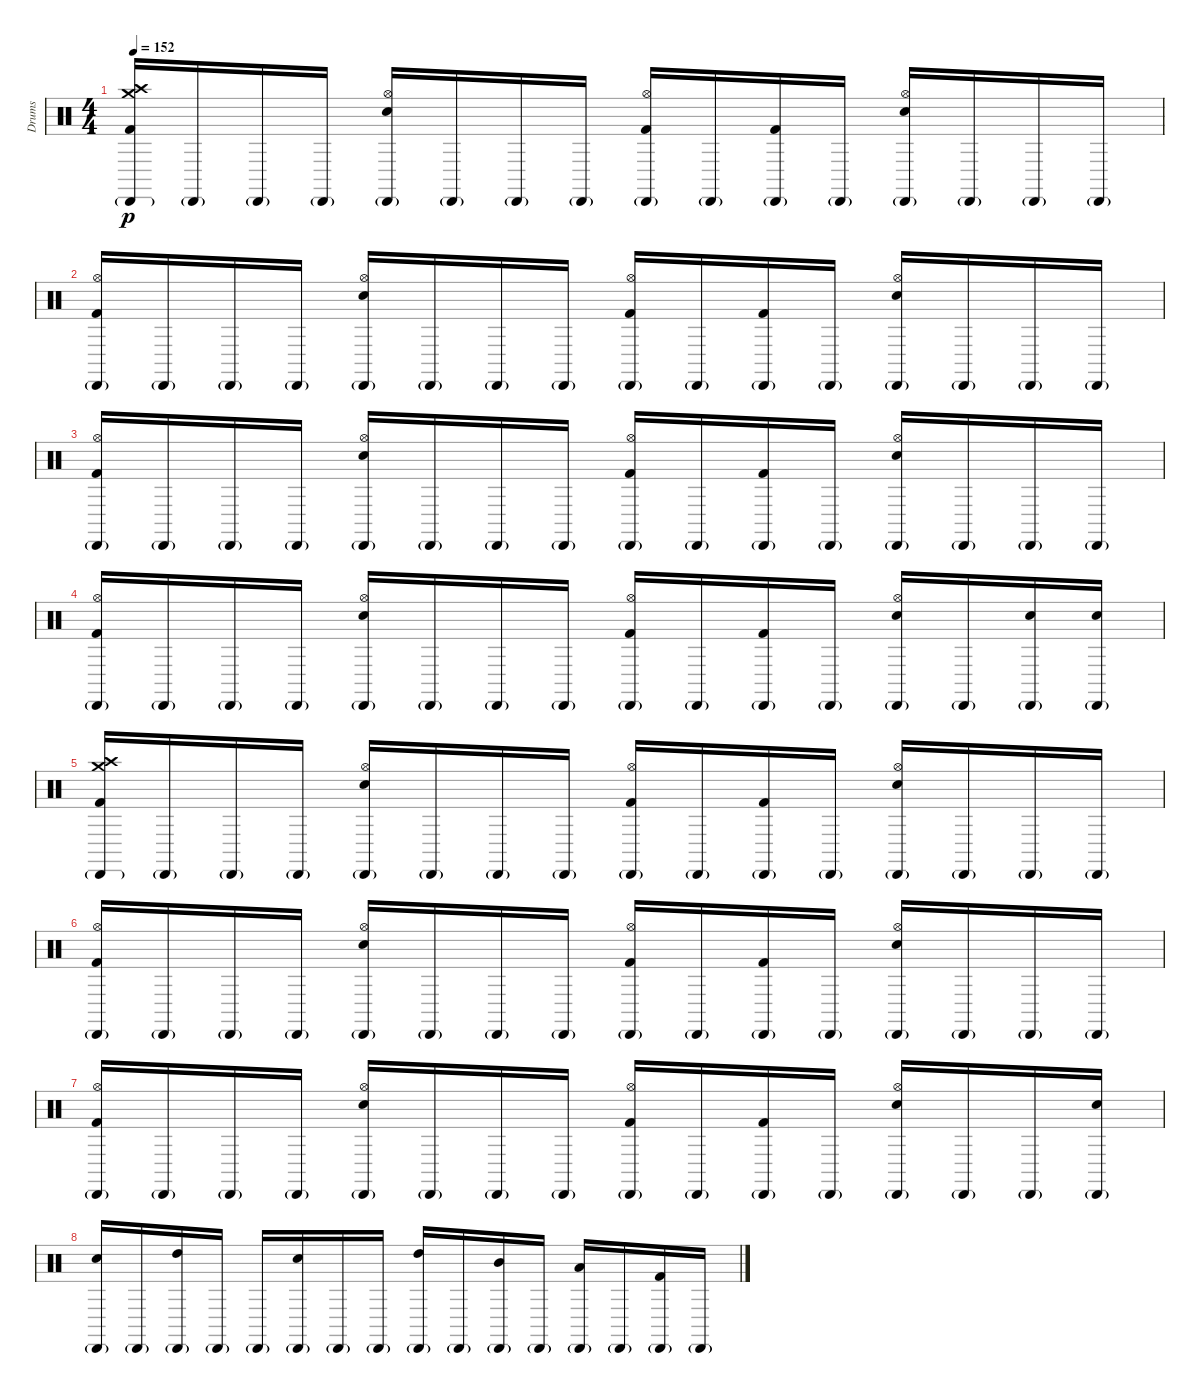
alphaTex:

\track ("Drums" "Drums") {instrument percussion}
\staff {score}
\articulation defaults
\ts (4 4)
\tempo 152
\clef neutral
\ks c
("Crash high (hit)" "Crash medium (hit)" "Cabasa (hit)"{g} "Kick (hit) 2").16{dy p} "Cabasa (hit)"{g}.16 "Cabasa (hit)"{g}.16 "Cabasa (hit)"{g}.16 ("Hi-Hat (open)" "Cabasa (hit)"{g} "Electric Snare (hit)").16 "Cabasa (hit)"{g}.16 "Cabasa (hit)"{g}.16 "Cabasa (hit)"{g}.16 ("Hi-Hat (open)" "Cabasa (hit)"{g} "Kick (hit) 2").16 "Cabasa (hit)"{g}.16 ("Cabasa (hit)"{g} "Kick (hit) 2").16 "Cabasa (hit)"{g}.16 ("Hi-Hat (open)" "Cabasa (hit)"{g} "Electric Snare (hit)").16 "Cabasa (hit)"{g}.16 "Cabasa (hit)"{g}.16 "Cabasa (hit)"{g}.16 |
("Hi-Hat (open)" "Cabasa (hit)"{g} "Kick (hit) 2").16 "Cabasa (hit)"{g}.16 "Cabasa (hit)"{g}.16 "Cabasa (hit)"{g}.16 ("Hi-Hat (open)" "Cabasa (hit)"{g} "Electric Snare (hit)").16 "Cabasa (hit)"{g}.16 "Cabasa (hit)"{g}.16 "Cabasa (hit)"{g}.16 ("Hi-Hat (open)" "Cabasa (hit)"{g} "Kick (hit) 2").16 "Cabasa (hit)"{g}.16 ("Cabasa (hit)"{g} "Kick (hit) 2").16 "Cabasa (hit)"{g}.16 ("Hi-Hat (open)" "Cabasa (hit)"{g} "Electric Snare (hit)").16 "Cabasa (hit)"{g}.16 "Cabasa (hit)"{g}.16 "Cabasa (hit)"{g}.16 |
("Hi-Hat (open)" "Cabasa (hit)"{g} "Kick (hit) 2").16 "Cabasa (hit)"{g}.16 "Cabasa (hit)"{g}.16 "Cabasa (hit)"{g}.16 ("Hi-Hat (open)" "Cabasa (hit)"{g} "Electric Snare (hit)").16 "Cabasa (hit)"{g}.16 "Cabasa (hit)"{g}.16 "Cabasa (hit)"{g}.16 ("Hi-Hat (open)" "Cabasa (hit)"{g} "Kick (hit) 2").16 "Cabasa (hit)"{g}.16 ("Cabasa (hit)"{g} "Kick (hit) 2").16 "Cabasa (hit)"{g}.16 ("Hi-Hat (open)" "Cabasa (hit)"{g} "Electric Snare (hit)").16 "Cabasa (hit)"{g}.16 "Cabasa (hit)"{g}.16 "Cabasa (hit)"{g}.16 |
("Hi-Hat (open)" "Cabasa (hit)"{g} "Kick (hit) 2").16 "Cabasa (hit)"{g}.16 "Cabasa (hit)"{g}.16 "Cabasa (hit)"{g}.16 ("Hi-Hat (open)" "Cabasa (hit)"{g} "Electric Snare (hit)").16 "Cabasa (hit)"{g}.16 "Cabasa (hit)"{g}.16 "Cabasa (hit)"{g}.16 ("Hi-Hat (open)" "Cabasa (hit)"{g} "Kick (hit) 2").16 "Cabasa (hit)"{g}.16 ("Cabasa (hit)"{g} "Kick (hit) 2").16 "Cabasa (hit)"{g}.16 ("Hi-Hat (open)" "Cabasa (hit)"{g} "Electric Snare (hit)").16 "Cabasa (hit)"{g}.16 ("Cabasa (hit)"{g} "Electric Snare (hit)").16 ("Cabasa (hit)"{g} "Electric Snare (hit)").16 |
("Crash high (hit)" "Crash medium (hit)" "Cabasa (hit)"{g} "Kick (hit) 2").16 "Cabasa (hit)"{g}.16 "Cabasa (hit)"{g}.16 "Cabasa (hit)"{g}.16 ("Hi-Hat (open)" "Cabasa (hit)"{g} "Electric Snare (hit)").16 "Cabasa (hit)"{g}.16 "Cabasa (hit)"{g}.16 "Cabasa (hit)"{g}.16 ("Hi-Hat (open)" "Cabasa (hit)"{g} "Kick (hit) 2").16 "Cabasa (hit)"{g}.16 ("Cabasa (hit)"{g} "Kick (hit) 2").16 "Cabasa (hit)"{g}.16 ("Hi-Hat (open)" "Cabasa (hit)"{g} "Electric Snare (hit)").16 "Cabasa (hit)"{g}.16 "Cabasa (hit)"{g}.16 "Cabasa (hit)"{g}.16 |
("Hi-Hat (open)" "Cabasa (hit)"{g} "Kick (hit) 2").16 "Cabasa (hit)"{g}.16 "Cabasa (hit)"{g}.16 "Cabasa (hit)"{g}.16 ("Hi-Hat (open)" "Cabasa (hit)"{g} "Electric Snare (hit)").16 "Cabasa (hit)"{g}.16 "Cabasa (hit)"{g}.16 "Cabasa (hit)"{g}.16 ("Hi-Hat (open)" "Cabasa (hit)"{g} "Kick (hit) 2").16 "Cabasa (hit)"{g}.16 ("Cabasa (hit)"{g} "Kick (hit) 2").16 "Cabasa (hit)"{g}.16 ("Hi-Hat (open)" "Cabasa (hit)"{g} "Electric Snare (hit)").16 "Cabasa (hit)"{g}.16 "Cabasa (hit)"{g}.16 "Cabasa (hit)"{g}.16 |
("Hi-Hat (open)" "Cabasa (hit)"{g} "Kick (hit) 2").16 "Cabasa (hit)"{g}.16 "Cabasa (hit)"{g}.16 "Cabasa (hit)"{g}.16 ("Hi-Hat (open)" "Cabasa (hit)"{g} "Electric Snare (hit)").16 "Cabasa (hit)"{g}.16 "Cabasa (hit)"{g}.16 "Cabasa (hit)"{g}.16 ("Hi-Hat (open)" "Cabasa (hit)"{g} "Kick (hit) 2").16 "Cabasa (hit)"{g}.16 ("Cabasa (hit)"{g} "Kick (hit) 2").16 "Cabasa (hit)"{g}.16 ("Hi-Hat (open)" "Cabasa (hit)"{g} "Electric Snare (hit)").16 "Cabasa (hit)"{g}.16 "Cabasa (hit)"{g}.16 ("Cabasa (hit)"{g} "Electric Snare (hit)").16 |
("Cabasa (hit)"{g} "Electric Snare (hit)").16 "Cabasa (hit)"{g}.16 ("Cabasa (hit)"{g} "High Tom (hit)").16 "Cabasa (hit)"{g}.16 "Cabasa (hit)"{g}.16 ("Cabasa (hit)"{g} "Electric Snare (hit)").16 "Cabasa (hit)"{g}.16 "Cabasa (hit)"{g}.16 ("Cabasa (hit)"{g} "High Tom (hit)").16 "Cabasa (hit)"{g}.16 ("Cabasa (hit)"{g} "Mid Tom (hit)").16 "Cabasa (hit)"{g}.16 ("Cabasa (hit)"{g} "Low Tom (hit)").16 "Cabasa (hit)"{g}.16 ("Cabasa (hit)"{g} "Kick (hit) 2").16 "Cabasa (hit)"{g}.16
